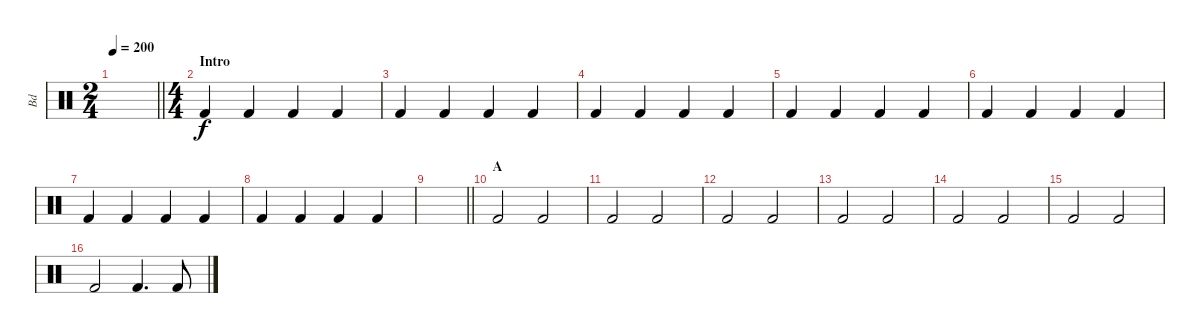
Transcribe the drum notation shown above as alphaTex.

\track ("Bd" "Bd") {instrument percussion}
\staff {score}
\articulation defaults
\ts (2 4)
\tempo 200
\clef neutral
\barLineRight lightlight
\ks c
|
\ts (4 4)
\section ("" "Intro")
"Kick (hit) 2".4 "Kick (hit) 2".4 "Kick (hit) 2".4 "Kick (hit) 2".4 |
"Kick (hit) 2".4 "Kick (hit) 2".4 "Kick (hit) 2".4 "Kick (hit) 2".4 |
"Kick (hit) 2".4 "Kick (hit) 2".4 "Kick (hit) 2".4 "Kick (hit) 2".4 |
"Kick (hit) 2".4 "Kick (hit) 2".4 "Kick (hit) 2".4 "Kick (hit) 2".4 |
"Kick (hit) 2".4 "Kick (hit) 2".4 "Kick (hit) 2".4 "Kick (hit) 2".4 |
"Kick (hit) 2".4 "Kick (hit) 2".4 "Kick (hit) 2".4 "Kick (hit) 2".4 |
"Kick (hit) 2".4 "Kick (hit) 2".4 "Kick (hit) 2".4 "Kick (hit) 2".4 |
\barLineRight lightlight
|
\section ("" "A")
"Kick (hit) 2".2 "Kick (hit) 2".2 |
"Kick (hit) 2".2 "Kick (hit) 2".2 |
"Kick (hit) 2".2 "Kick (hit) 2".2 |
"Kick (hit) 2".2 "Kick (hit) 2".2 |
"Kick (hit) 2".2 "Kick (hit) 2".2 |
"Kick (hit) 2".2 "Kick (hit) 2".2 |
"Kick (hit) 2".2 "Kick (hit) 2".4{d} "Kick (hit) 2".8
